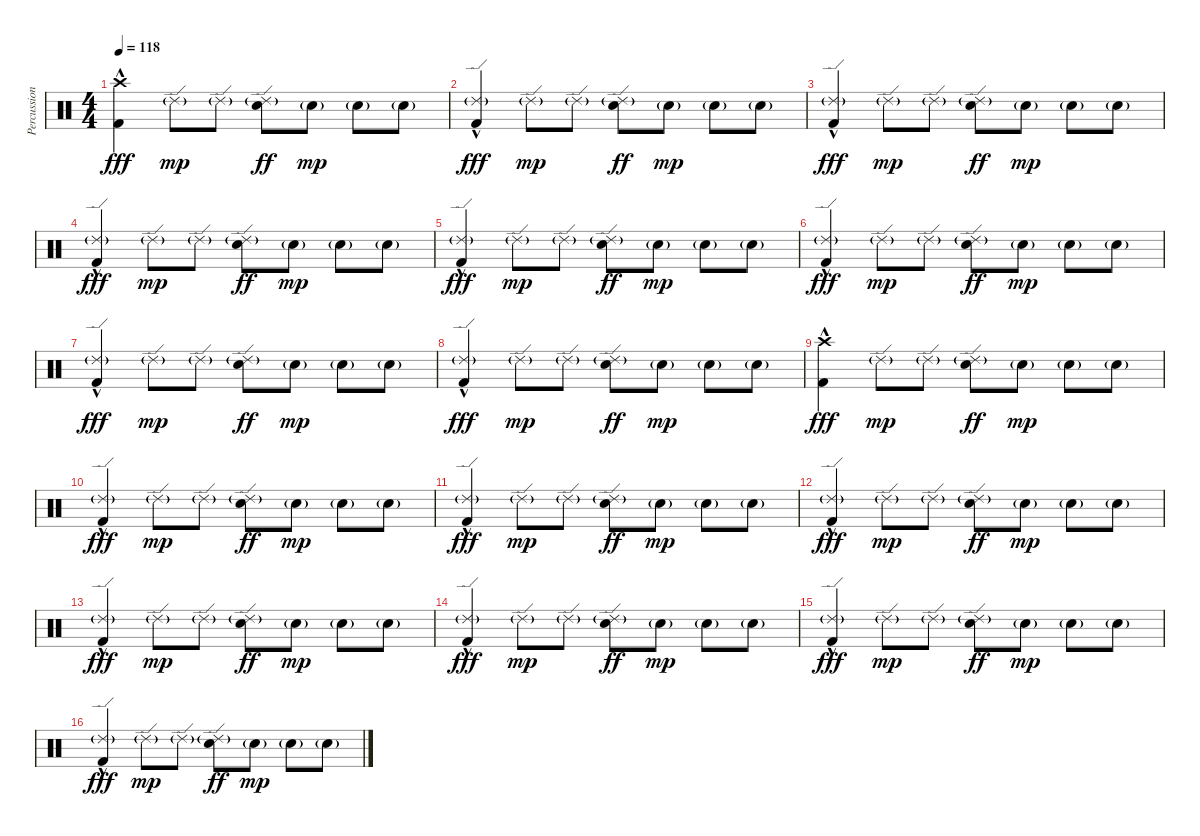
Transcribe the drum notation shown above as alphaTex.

\track ("Percussion" "Percussion") {instrument percussion}
\staff {score}
\articulation defaults
\ts (4 4)
\tempo 118
\clef neutral
\ks c
("Crash high (hit)" "Kick (hit) 2"{hac}).4{dy fff} "Ride (edge) 2"{g}.8{dy mp} "Ride (edge) 2"{g}.8 ("Ride (edge) 2"{g} "Electric Snare (hit)").8{dy ff} "Electric Snare (hit)"{g}.8{dy mp} "Electric Snare (hit)"{g}.8 "Electric Snare (hit)"{g}.8 |
("Ride (edge) 2"{g} "Kick (hit) 2"{hac}).4{dy fff} "Ride (edge) 2"{g}.8{dy mp} "Ride (edge) 2"{g}.8 ("Ride (edge) 2"{g} "Electric Snare (hit)").8{dy ff} "Electric Snare (hit)"{g}.8{dy mp} "Electric Snare (hit)"{g}.8 "Electric Snare (hit)"{g}.8 |
("Ride (edge) 2"{g} "Kick (hit) 2"{hac}).4{dy fff} "Ride (edge) 2"{g}.8{dy mp} "Ride (edge) 2"{g}.8 ("Ride (edge) 2"{g} "Electric Snare (hit)").8{dy ff} "Electric Snare (hit)"{g}.8{dy mp} "Electric Snare (hit)"{g}.8 "Electric Snare (hit)"{g}.8 |
("Ride (edge) 2"{g} "Kick (hit) 2"{hac}).4{dy fff} "Ride (edge) 2"{g}.8{dy mp} "Ride (edge) 2"{g}.8 ("Ride (edge) 2"{g} "Electric Snare (hit)").8{dy ff} "Electric Snare (hit)"{g}.8{dy mp} "Electric Snare (hit)"{g}.8 "Electric Snare (hit)"{g}.8 |
("Ride (edge) 2"{g} "Kick (hit) 2"{hac}).4{dy fff} "Ride (edge) 2"{g}.8{dy mp} "Ride (edge) 2"{g}.8 ("Ride (edge) 2"{g} "Electric Snare (hit)").8{dy ff} "Electric Snare (hit)"{g}.8{dy mp} "Electric Snare (hit)"{g}.8 "Electric Snare (hit)"{g}.8 |
("Ride (edge) 2"{g} "Kick (hit) 2"{hac}).4{dy fff} "Ride (edge) 2"{g}.8{dy mp} "Ride (edge) 2"{g}.8 ("Ride (edge) 2"{g} "Electric Snare (hit)").8{dy ff} "Electric Snare (hit)"{g}.8{dy mp} "Electric Snare (hit)"{g}.8 "Electric Snare (hit)"{g}.8 |
("Ride (edge) 2"{g} "Kick (hit) 2"{hac}).4{dy fff} "Ride (edge) 2"{g}.8{dy mp} "Ride (edge) 2"{g}.8 ("Ride (edge) 2"{g} "Electric Snare (hit)").8{dy ff} "Electric Snare (hit)"{g}.8{dy mp} "Electric Snare (hit)"{g}.8 "Electric Snare (hit)"{g}.8 |
("Ride (edge) 2"{g} "Kick (hit) 2"{hac}).4{dy fff} "Ride (edge) 2"{g}.8{dy mp} "Ride (edge) 2"{g}.8 ("Ride (edge) 2"{g} "Electric Snare (hit)").8{dy ff} "Electric Snare (hit)"{g}.8{dy mp} "Electric Snare (hit)"{g}.8 "Electric Snare (hit)"{g}.8 |
("Crash high (hit)" "Kick (hit) 2"{hac}).4{dy fff} "Ride (edge) 2"{g}.8{dy mp} "Ride (edge) 2"{g}.8 ("Ride (edge) 2"{g} "Electric Snare (hit)").8{dy ff} "Electric Snare (hit)"{g}.8{dy mp} "Electric Snare (hit)"{g}.8 "Electric Snare (hit)"{g}.8 |
("Ride (edge) 2"{g} "Kick (hit) 2"{hac}).4{dy fff} "Ride (edge) 2"{g}.8{dy mp} "Ride (edge) 2"{g}.8 ("Ride (edge) 2"{g} "Electric Snare (hit)").8{dy ff} "Electric Snare (hit)"{g}.8{dy mp} "Electric Snare (hit)"{g}.8 "Electric Snare (hit)"{g}.8 |
("Ride (edge) 2"{g} "Kick (hit) 2"{hac}).4{dy fff} "Ride (edge) 2"{g}.8{dy mp} "Ride (edge) 2"{g}.8 ("Ride (edge) 2"{g} "Electric Snare (hit)").8{dy ff} "Electric Snare (hit)"{g}.8{dy mp} "Electric Snare (hit)"{g}.8 "Electric Snare (hit)"{g}.8 |
("Ride (edge) 2"{g} "Kick (hit) 2"{hac}).4{dy fff} "Ride (edge) 2"{g}.8{dy mp} "Ride (edge) 2"{g}.8 ("Ride (edge) 2"{g} "Electric Snare (hit)").8{dy ff} "Electric Snare (hit)"{g}.8{dy mp} "Electric Snare (hit)"{g}.8 "Electric Snare (hit)"{g}.8 |
("Ride (edge) 2"{g} "Kick (hit) 2"{hac}).4{dy fff} "Ride (edge) 2"{g}.8{dy mp} "Ride (edge) 2"{g}.8 ("Ride (edge) 2"{g} "Electric Snare (hit)").8{dy ff} "Electric Snare (hit)"{g}.8{dy mp} "Electric Snare (hit)"{g}.8 "Electric Snare (hit)"{g}.8 |
("Ride (edge) 2"{g} "Kick (hit) 2"{hac}).4{dy fff} "Ride (edge) 2"{g}.8{dy mp} "Ride (edge) 2"{g}.8 ("Ride (edge) 2"{g} "Electric Snare (hit)").8{dy ff} "Electric Snare (hit)"{g}.8{dy mp} "Electric Snare (hit)"{g}.8 "Electric Snare (hit)"{g}.8 |
("Ride (edge) 2"{g} "Kick (hit) 2"{hac}).4{dy fff} "Ride (edge) 2"{g}.8{dy mp} "Ride (edge) 2"{g}.8 ("Ride (edge) 2"{g} "Electric Snare (hit)").8{dy ff} "Electric Snare (hit)"{g}.8{dy mp} "Electric Snare (hit)"{g}.8 "Electric Snare (hit)"{g}.8 |
("Ride (edge) 2"{g} "Kick (hit) 2"{hac}).4{dy fff} "Ride (edge) 2"{g}.8{dy mp} "Ride (edge) 2"{g}.8 ("Ride (edge) 2"{g} "Electric Snare (hit)").8{dy ff} "Electric Snare (hit)"{g}.8{dy mp} "Electric Snare (hit)"{g}.8 "Electric Snare (hit)"{g}.8
